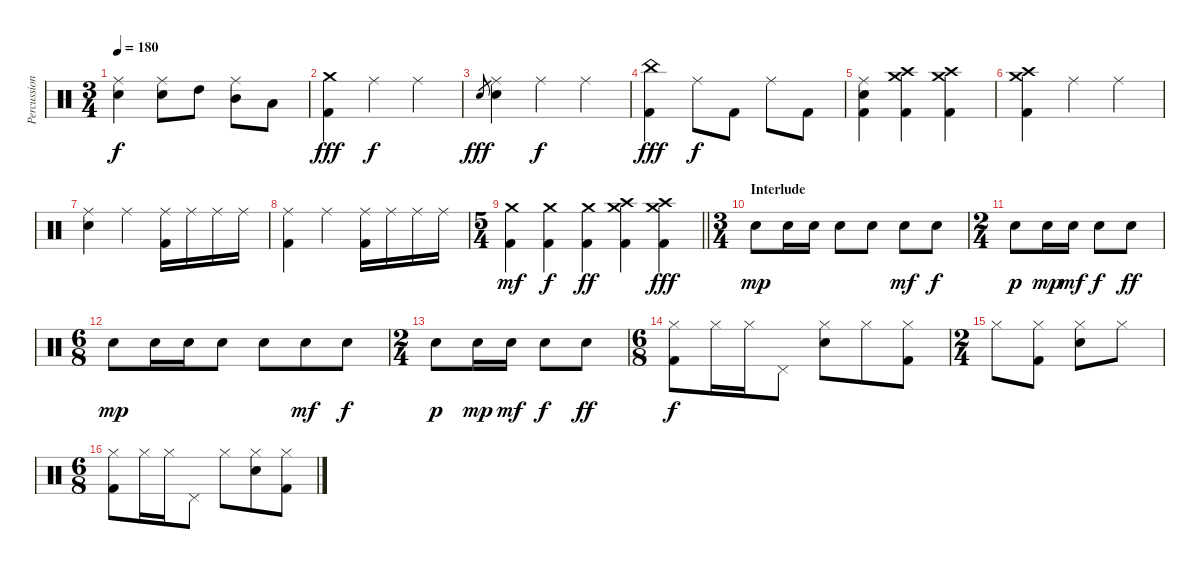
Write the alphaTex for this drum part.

\track ("Percussion" "Percussion") {instrument percussion}
\staff {score}
\articulation defaults
\ts (3 4)
\tempo 180
\clef neutral
\ks c
("Ride (middle)" "Electric Snare (hit)").4{dy f} ("Ride (middle)" "Electric Snare (hit)").8 "High Tom (hit)".8 ("Ride (middle)" "Mid Tom (hit)").8 "Low Tom (hit)".8 |
("Crash medium (hit)" "Kick (hit) 2").4{dy fff} "Ride (middle)".4{dy f} "Ride (middle)".4 |
"Electric Snare (hit)".8{gr dy fff} ("Ride (middle)" "Electric Snare (hit)").4 "Ride (middle)".4{dy f} "Ride (middle)".4 |
("China (hit)" "Kick (hit) 2").4{dy fff} "Ride (middle)".8{dy f} "Kick (hit) 2".8 "Ride (middle)".8 "Kick (hit) 2".8 |
("Ride (middle)" "Electric Snare (hit)" "Kick (hit) 2").4 ("Crash medium (hit)" "Crash high (hit)" "Kick (hit) 2").4 ("Crash medium (hit)" "Crash high (hit)" "Kick (hit) 2").4 |
("Crash medium (hit)" "Crash high (hit)" "Kick (hit) 2").4 "Ride (middle)".4 "Ride (middle)".4 |
("Ride (middle)" "Electric Snare (hit)").4 "Ride (middle)".4 ("Ride (middle)" "Kick (hit) 2").16 "Ride (middle)".16 "Ride (middle)".16 "Ride (middle)".16 |
("Ride (middle)" "Kick (hit) 2").4 "Ride (middle)".4 ("Ride (middle)" "Kick (hit) 2").16 "Ride (middle)".16 "Ride (middle)".16 "Ride (middle)".16 |
\ts (5 4)
\barLineRight lightlight
("Crash medium (hit)" "Kick (hit) 2").4{dy mf} ("Crash medium (hit)" "Kick (hit) 2").4{dy f} ("Crash medium (hit)" "Kick (hit) 2").4{dy ff} ("Crash medium (hit)" "Crash high (hit)" "Kick (hit) 2").4 ("Crash medium (hit)" "Crash high (hit)" "Kick (hit) 2").4{dy fff} |
\ts (3 4)
\section ("" "Interlude")
"Electric Snare (hit)".8{dy mp} "Electric Snare (hit)".16 "Electric Snare (hit)".16 "Electric Snare (hit)".8 "Electric Snare (hit)".8 "Electric Snare (hit)".8{dy mf} "Electric Snare (hit)".8{dy f} |
\ts (2 4)
"Electric Snare (hit)".8{dy p} "Electric Snare (hit)".16{dy mp} "Electric Snare (hit)".16{dy mf} "Electric Snare (hit)".8{dy f} "Electric Snare (hit)".8{dy ff} |
\ts (6 8)
"Electric Snare (hit)".8{dy mp} "Electric Snare (hit)".16 "Electric Snare (hit)".16 "Electric Snare (hit)".8 "Electric Snare (hit)".8 "Electric Snare (hit)".8{dy mf} "Electric Snare (hit)".8{dy f} |
\ts (2 4)
"Electric Snare (hit)".8{dy p} "Electric Snare (hit)".16{dy mp} "Electric Snare (hit)".16{dy mf} "Electric Snare (hit)".8{dy f} "Electric Snare (hit)".8{dy ff} |
\ts (6 8)
("Hi-Hat (closed)" "Kick (hit) 2").8{dy f} "Hi-Hat (closed)".16 "Hi-Hat (closed)".16 "Pedal Hi-Hat (hit)".8 ("Hi-Hat (closed)" "Electric Snare (hit)").8 "Hi-Hat (closed)".8 ("Hi-Hat (closed)" "Kick (hit) 2").8 |
\ts (2 4)
"Hi-Hat (closed)".8 ("Hi-Hat (closed)" "Kick (hit) 2").8 ("Hi-Hat (closed)" "Electric Snare (hit)").8 "Hi-Hat (closed)".8 |
\ts (6 8)
("Hi-Hat (closed)" "Kick (hit) 2").8 "Hi-Hat (closed)".16 "Hi-Hat (closed)".16 "Pedal Hi-Hat (hit)".8 "Hi-Hat (closed)".8 ("Hi-Hat (closed)" "Electric Snare (hit)").8 ("Hi-Hat (closed)" "Kick (hit) 2").8
